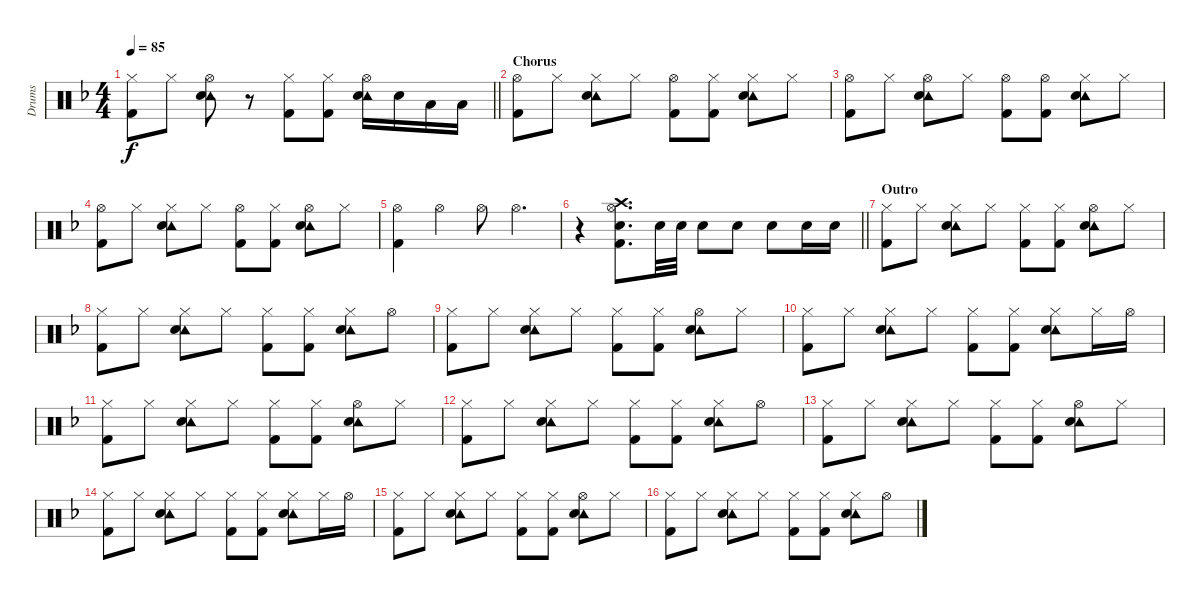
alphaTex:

\track ("Drums" "Drums") {instrument percussion}
\staff
\articulation defaults
\ts (4 4)
\tempo 85
\clef neutral
\barLineRight lightlight
\ks f
("Hi-Hat (closed)" "Kick (hit) 2").8{dy f} "Hi-Hat (closed)".8 ("Tambourine (hit)" "Hi-Hat (open)" "Snare (hit) 2").8 r.8 ("Hi-Hat (closed)" "Kick (hit) 2").8 ("Hi-Hat (closed)" "Kick (hit) 2").8 ("Tambourine (hit)" "Hi-Hat (open)" "Snare (hit) 2").16 "Snare (hit) 2".16 "Low Tom (hit)".16 "Low Tom (hit)".16 |
\section ("" "Chorus")
("Hi-Hat (open)" "Kick (hit) 2").8 "Hi-Hat (closed)".8 ("Tambourine (hit)" "Hi-Hat (closed)" "Snare (hit) 2").8 "Hi-Hat (closed)".8 ("Hi-Hat (open)" "Kick (hit) 2").8 ("Hi-Hat (closed)" "Kick (hit) 2").8 ("Tambourine (hit)" "Hi-Hat (closed)" "Snare (hit) 2").8 "Hi-Hat (closed)".8 |
("Hi-Hat (open)" "Kick (hit) 2").8 "Hi-Hat (closed)".8 ("Tambourine (hit)" "Hi-Hat (open)" "Snare (hit) 2").8 "Hi-Hat (closed)".8 ("Hi-Hat (open)" "Kick (hit) 2").8 ("Hi-Hat (open)" "Kick (hit) 2").8 ("Tambourine (hit)" "Hi-Hat (closed)" "Snare (hit) 2").8 "Hi-Hat (closed)".8 |
("Hi-Hat (open)" "Kick (hit) 2").8 "Hi-Hat (closed)".8 ("Tambourine (hit)" "Hi-Hat (closed)" "Snare (hit) 2").8 "Hi-Hat (closed)".8 ("Hi-Hat (open)" "Kick (hit) 2").8 ("Hi-Hat (closed)" "Kick (hit) 2").8 ("Tambourine (hit)" "Hi-Hat (open)" "Snare (hit) 2").8 "Hi-Hat (closed)".8 |
("Hi-Hat (open)" "Kick (hit) 2").4 "Hi-Hat (open)".4 "Hi-Hat (open)".8 "Hi-Hat (open)".4{d} |
\barLineRight lightlight
r.4 ("Crash high (hit)" "Hi-Hat (open)" "Snare (hit) 2" "Kick (hit) 2").8{d} "Snare (hit) 2".32 "Snare (hit) 2".32 "Snare (hit) 2".8 "Snare (hit) 2".8 "Snare (hit) 2".8 "Snare (hit) 2".16 "Snare (hit) 2".16 |
\section ("" "Outro")
("Hi-Hat (closed)" "Kick (hit) 2").8 "Hi-Hat (closed)".8 ("Tambourine (hit)" "Hi-Hat (closed)" "Snare (hit) 2").8 "Hi-Hat (closed)".8 ("Hi-Hat (closed)" "Kick (hit) 2").8 ("Hi-Hat (closed)" "Kick (hit) 2").8 ("Tambourine (hit)" "Hi-Hat (open)" "Snare (hit) 2").8 "Hi-Hat (closed)".8 |
("Hi-Hat (closed)" "Kick (hit) 2").8 "Hi-Hat (closed)".8 ("Tambourine (hit)" "Hi-Hat (closed)" "Snare (hit) 2").8 "Hi-Hat (closed)".8 ("Hi-Hat (closed)" "Kick (hit) 2").8 ("Hi-Hat (closed)" "Kick (hit) 2").8 ("Tambourine (hit)" "Hi-Hat (closed)" "Snare (hit) 2").8 "Hi-Hat (open)".8 |
("Hi-Hat (closed)" "Kick (hit) 2").8 "Hi-Hat (closed)".8 ("Tambourine (hit)" "Hi-Hat (closed)" "Snare (hit) 2").8 "Hi-Hat (closed)".8 ("Hi-Hat (closed)" "Kick (hit) 2").8 ("Hi-Hat (closed)" "Kick (hit) 2").8 ("Tambourine (hit)" "Hi-Hat (open)" "Snare (hit) 2").8 "Hi-Hat (closed)".8 |
("Hi-Hat (closed)" "Kick (hit) 2").8 "Hi-Hat (closed)".8 ("Tambourine (hit)" "Hi-Hat (closed)" "Snare (hit) 2").8 "Hi-Hat (closed)".8 ("Hi-Hat (closed)" "Kick (hit) 2").8 ("Hi-Hat (closed)" "Kick (hit) 2").8 ("Tambourine (hit)" "Hi-Hat (closed)" "Snare (hit) 2").8 "Hi-Hat (closed)".16 "Hi-Hat (open)".16 |
("Hi-Hat (closed)" "Kick (hit) 2").8 "Hi-Hat (closed)".8 ("Tambourine (hit)" "Hi-Hat (closed)" "Snare (hit) 2").8 "Hi-Hat (closed)".8 ("Hi-Hat (closed)" "Kick (hit) 2").8 ("Hi-Hat (closed)" "Kick (hit) 2").8 ("Tambourine (hit)" "Hi-Hat (open)" "Snare (hit) 2").8 "Hi-Hat (closed)".8 |
("Hi-Hat (closed)" "Kick (hit) 2").8 "Hi-Hat (closed)".8 ("Tambourine (hit)" "Hi-Hat (closed)" "Snare (hit) 2").8 "Hi-Hat (closed)".8 ("Hi-Hat (closed)" "Kick (hit) 2").8 ("Hi-Hat (closed)" "Kick (hit) 2").8 ("Tambourine (hit)" "Hi-Hat (closed)" "Snare (hit) 2").8 "Hi-Hat (open)".8 |
("Hi-Hat (closed)" "Kick (hit) 2").8 "Hi-Hat (closed)".8 ("Tambourine (hit)" "Hi-Hat (closed)" "Snare (hit) 2").8 "Hi-Hat (closed)".8 ("Hi-Hat (closed)" "Kick (hit) 2").8 ("Hi-Hat (closed)" "Kick (hit) 2").8 ("Tambourine (hit)" "Hi-Hat (open)" "Snare (hit) 2").8 "Hi-Hat (closed)".8 |
("Hi-Hat (closed)" "Kick (hit) 2").8 "Hi-Hat (closed)".8 ("Tambourine (hit)" "Hi-Hat (closed)" "Snare (hit) 2").8 "Hi-Hat (closed)".8 ("Hi-Hat (closed)" "Kick (hit) 2").8 ("Hi-Hat (closed)" "Kick (hit) 2").8 ("Tambourine (hit)" "Hi-Hat (closed)" "Snare (hit) 2").8 "Hi-Hat (closed)".16 "Hi-Hat (open)".16 |
("Hi-Hat (closed)" "Kick (hit) 2").8 "Hi-Hat (closed)".8 ("Tambourine (hit)" "Hi-Hat (closed)" "Snare (hit) 2").8 "Hi-Hat (closed)".8 ("Hi-Hat (closed)" "Kick (hit) 2").8 ("Hi-Hat (closed)" "Kick (hit) 2").8 ("Tambourine (hit)" "Hi-Hat (open)" "Snare (hit) 2").8 "Hi-Hat (closed)".8 |
("Hi-Hat (closed)" "Kick (hit) 2").8 "Hi-Hat (closed)".8 ("Tambourine (hit)" "Hi-Hat (closed)" "Snare (hit) 2").8 "Hi-Hat (closed)".8 ("Hi-Hat (closed)" "Kick (hit) 2").8 ("Hi-Hat (closed)" "Kick (hit) 2").8 ("Tambourine (hit)" "Hi-Hat (closed)" "Snare (hit) 2").8 "Hi-Hat (open)".8
